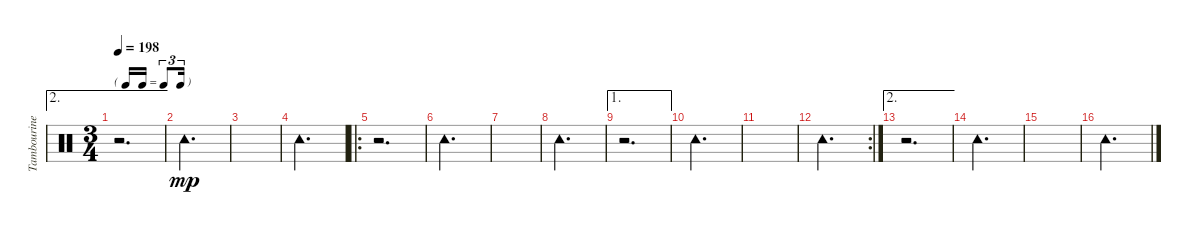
\track ("Tambourine" "Tambourine") {instrument percussion}
\staff {score}
\articulation defaults
\ae 2
\ts (3 4)
\tf triplet16th
\tempo 198
\clef neutral
\ks c
r.2{d dy mp} |
"Tambourine (hit)".2{d} |
|
"Tambourine (hit)".2{d} |
\ro
r.2{d} |
"Tambourine (hit)".2{d} |
|
"Tambourine (hit)".2{d} |
\ae 1
r.2{d} |
"Tambourine (hit)".2{d} |
|
\rc 2 "Tambourine (hit)".2{d}
|
\ae 2
r.2{d} |
"Tambourine (hit)".2{d} |
|
"Tambourine (hit)".2{d}
